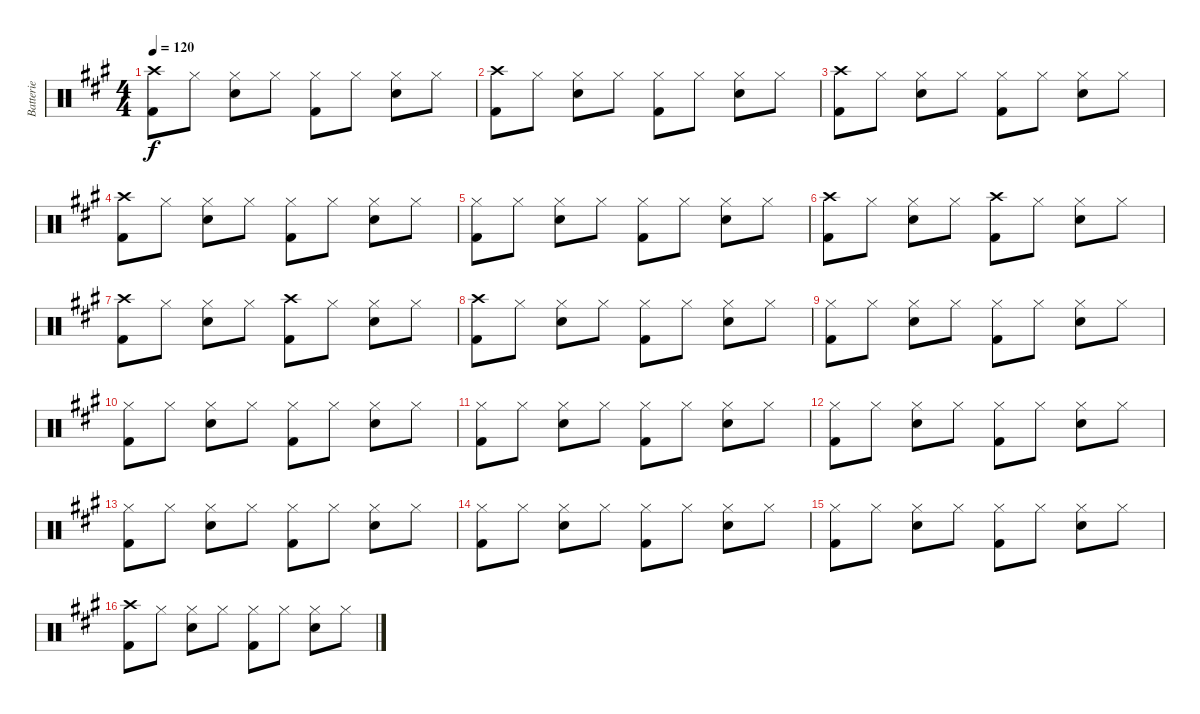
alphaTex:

\track ("Batterie" "Batterie") {instrument percussion}
\staff {score}
\articulation defaults
\ts (4 4)
\tempo 120
\clef neutral
\ks a
("Crash high (hit)" "Kick (hit) 2").8{dy f} "Hi-Hat (closed)".8 ("Hi-Hat (closed)" "Snare (hit) 2").8 "Hi-Hat (closed)".8 ("Hi-Hat (closed)" "Kick (hit) 2").8 "Hi-Hat (closed)".8 ("Hi-Hat (closed)" "Snare (hit) 2").8 "Hi-Hat (closed)".8 |
("Crash high (hit)" "Kick (hit) 2").8 "Hi-Hat (closed)".8 ("Hi-Hat (closed)" "Snare (hit) 2").8 "Hi-Hat (closed)".8 ("Hi-Hat (closed)" "Kick (hit) 2").8 "Hi-Hat (closed)".8 ("Hi-Hat (closed)" "Snare (hit) 2").8 "Hi-Hat (closed)".8 |
("Crash high (hit)" "Kick (hit) 2").8 "Hi-Hat (closed)".8 ("Hi-Hat (closed)" "Snare (hit) 2").8 "Hi-Hat (closed)".8 ("Hi-Hat (closed)" "Kick (hit) 2").8 "Hi-Hat (closed)".8 ("Hi-Hat (closed)" "Snare (hit) 2").8 "Hi-Hat (closed)".8 |
("Crash high (hit)" "Kick (hit) 2").8 "Hi-Hat (closed)".8 ("Hi-Hat (closed)" "Snare (hit) 2").8 "Hi-Hat (closed)".8 ("Hi-Hat (closed)" "Kick (hit) 2").8 "Hi-Hat (closed)".8 ("Hi-Hat (closed)" "Snare (hit) 2").8 "Hi-Hat (closed)".8 |
("Hi-Hat (closed)" "Kick (hit) 2").8 "Hi-Hat (closed)".8 ("Hi-Hat (closed)" "Snare (hit) 2").8 "Hi-Hat (closed)".8 ("Hi-Hat (closed)" "Kick (hit) 2").8 "Hi-Hat (closed)".8 ("Hi-Hat (closed)" "Snare (hit) 2").8 "Hi-Hat (closed)".8 |
("Crash high (hit)" "Kick (hit) 2").8 "Hi-Hat (closed)".8 ("Hi-Hat (closed)" "Snare (hit) 2").8 "Hi-Hat (closed)".8 ("Crash high (hit)" "Kick (hit) 2").8 "Hi-Hat (closed)".8 ("Hi-Hat (closed)" "Snare (hit) 2").8 "Hi-Hat (closed)".8 |
("Crash high (hit)" "Kick (hit) 2").8 "Hi-Hat (closed)".8 ("Hi-Hat (closed)" "Snare (hit) 2").8 "Hi-Hat (closed)".8 ("Crash high (hit)" "Kick (hit) 2").8 "Hi-Hat (closed)".8 ("Hi-Hat (closed)" "Snare (hit) 2").8 "Hi-Hat (closed)".8 |
("Crash high (hit)" "Kick (hit) 2").8 "Hi-Hat (closed)".8 ("Hi-Hat (closed)" "Snare (hit) 2").8 "Hi-Hat (closed)".8 ("Hi-Hat (closed)" "Kick (hit) 2").8 "Hi-Hat (closed)".8 ("Hi-Hat (closed)" "Snare (hit) 2").8 "Hi-Hat (closed)".8 |
("Hi-Hat (closed)" "Kick (hit) 2").8 "Hi-Hat (closed)".8 ("Hi-Hat (closed)" "Snare (hit) 2").8 "Hi-Hat (closed)".8 ("Hi-Hat (closed)" "Kick (hit) 2").8 "Hi-Hat (closed)".8 ("Hi-Hat (closed)" "Snare (hit) 2").8 "Hi-Hat (closed)".8 |
("Hi-Hat (closed)" "Kick (hit) 2").8 "Hi-Hat (closed)".8 ("Hi-Hat (closed)" "Snare (hit) 2").8 "Hi-Hat (closed)".8 ("Hi-Hat (closed)" "Kick (hit) 2").8 "Hi-Hat (closed)".8 ("Hi-Hat (closed)" "Snare (hit) 2").8 "Hi-Hat (closed)".8 |
("Hi-Hat (closed)" "Kick (hit) 2").8 "Hi-Hat (closed)".8 ("Hi-Hat (closed)" "Snare (hit) 2").8 "Hi-Hat (closed)".8 ("Hi-Hat (closed)" "Kick (hit) 2").8 "Hi-Hat (closed)".8 ("Hi-Hat (closed)" "Snare (hit) 2").8 "Hi-Hat (closed)".8 |
("Hi-Hat (closed)" "Kick (hit) 2").8 "Hi-Hat (closed)".8 ("Hi-Hat (closed)" "Snare (hit) 2").8 "Hi-Hat (closed)".8 ("Hi-Hat (closed)" "Kick (hit) 2").8 "Hi-Hat (closed)".8 ("Hi-Hat (closed)" "Snare (hit) 2").8 "Hi-Hat (closed)".8 |
("Hi-Hat (closed)" "Kick (hit) 2").8 "Hi-Hat (closed)".8 ("Hi-Hat (closed)" "Snare (hit) 2").8 "Hi-Hat (closed)".8 ("Hi-Hat (closed)" "Kick (hit) 2").8 "Hi-Hat (closed)".8 ("Hi-Hat (closed)" "Snare (hit) 2").8 "Hi-Hat (closed)".8 |
("Hi-Hat (closed)" "Kick (hit) 2").8 "Hi-Hat (closed)".8 ("Hi-Hat (closed)" "Snare (hit) 2").8 "Hi-Hat (closed)".8 ("Hi-Hat (closed)" "Kick (hit) 2").8 "Hi-Hat (closed)".8 ("Hi-Hat (closed)" "Snare (hit) 2").8 "Hi-Hat (closed)".8 |
("Hi-Hat (closed)" "Kick (hit) 2").8 "Hi-Hat (closed)".8 ("Hi-Hat (closed)" "Snare (hit) 2").8 "Hi-Hat (closed)".8 ("Hi-Hat (closed)" "Kick (hit) 2").8 "Hi-Hat (closed)".8 ("Hi-Hat (closed)" "Snare (hit) 2").8 "Hi-Hat (closed)".8 |
("Crash high (hit)" "Kick (hit) 2").8 "Hi-Hat (closed)".8 ("Hi-Hat (closed)" "Snare (hit) 2").8 "Hi-Hat (closed)".8 ("Hi-Hat (closed)" "Kick (hit) 2").8 "Hi-Hat (closed)".8 ("Hi-Hat (closed)" "Snare (hit) 2").8 "Hi-Hat (closed)".8
